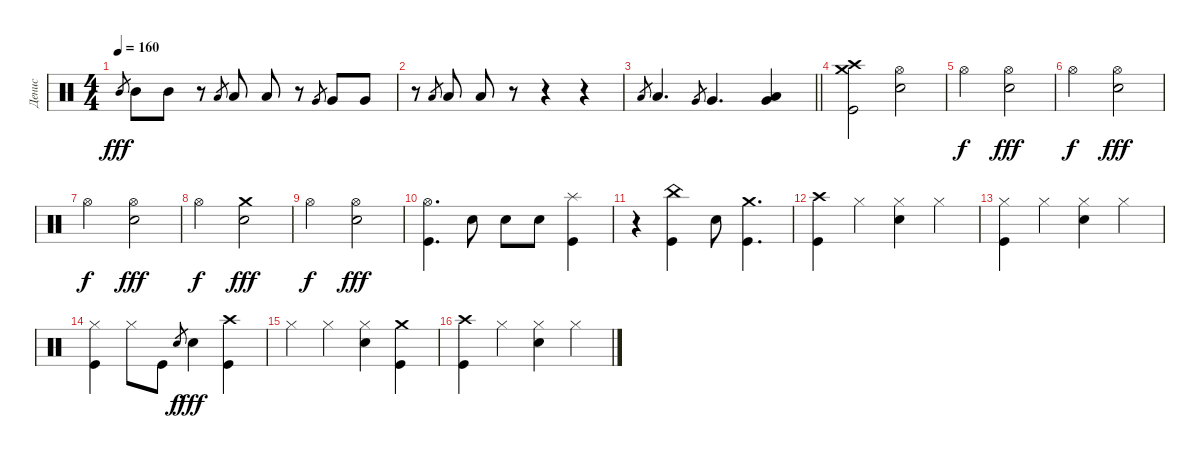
\track ("Денис" "Денис") {instrument percussion}
\staff {score}
\articulation defaults
\ts (4 4)
\tempo 160
\clef neutral
\ks c "Mid Tom (hit)".8{gr dy fff} "Mid Tom (hit)".8 "Mid Tom (hit)".8
r.8 "Low Tom (hit)".8{gr} "Low Tom (hit)".8 "Low Tom (hit)".8 r.8 "Very Low Tom (hit)".8{gr} "Very Low Tom (hit)".8 "Very Low Tom (hit)".8 |
r.8 "Low Floor Tom (hit)".8{gr} "Low Floor Tom (hit)".8 "Low Floor Tom (hit)".8 r.8 r.4 r.4 |
\barLineRight lightlight "Low Tom (hit)".8{gr} "Low Tom (hit)".4{d} "Very Low Tom (hit)".8{gr} "Very Low Tom (hit)".4{d}
("Low Floor Tom (hit)" "Very Low Tom (hit)").4 |
\section ("" "")
("Crash high (hit)" "Crash medium (hit)" "Kick (hit)").2 ("Hi-Hat (open)" "Electric Snare (hit)").2 |
"Hi-Hat (open)".2{dy f} ("Electric Snare (hit)" "Hi-Hat (open)").2{dy fff} |
"Hi-Hat (open)".2{dy f} ("Electric Snare (hit)" "Hi-Hat (open)").2{dy fff} |
"Hi-Hat (open)".2{dy f} ("Electric Snare (hit)" "Hi-Hat (open)").2{dy fff} |
"Hi-Hat (open)".2{dy f} ("Crash medium (hit)" "Electric Snare (hit)").2{dy fff} |
"Hi-Hat (open)".2{dy f} ("Electric Snare (hit)" "Hi-Hat (open)").2{dy fff} |
("Hi-Hat (open)" "Kick (hit)").4{d} "Electric Snare (hit)".8 "Electric Snare (hit)".8 "Electric Snare (hit)".8 ("Kick (hit)" "Splash (hit)").4 |
r.4 ("Kick (hit)" "China (hit)").4 "Electric Snare (hit)".8 ("Crash medium (hit)" "Kick (hit)").4{d} |
("Kick (hit)" "Crash high (hit)").4 "Hi-Hat (closed)".4 ("Electric Snare (hit)" "Hi-Hat (closed)").4 "Hi-Hat (closed)".4 |
("Kick (hit)" "Hi-Hat (closed)").4 "Hi-Hat (closed)".4 ("Electric Snare (hit)" "Hi-Hat (closed)").4 "Hi-Hat (closed)".4 |
("Kick (hit)" "Hi-Hat (closed)").4 "Hi-Hat (closed)".8 "Kick (hit)".8 "Electric Snare (hit)".8{gr dy f} "Electric Snare (hit)".4{dy fff} ("Crash high (hit)" "Kick (hit)").4 |
"Hi-Hat (closed)".4 "Hi-Hat (closed)".4 ("Electric Snare (hit)" "Hi-Hat (closed)").4 ("Kick (hit)" "Crash medium (hit)").4 |
("Kick (hit)" "Crash high (hit)").4 "Hi-Hat (closed)".4 ("Electric Snare (hit)" "Hi-Hat (closed)").4 "Hi-Hat (closed)".4
